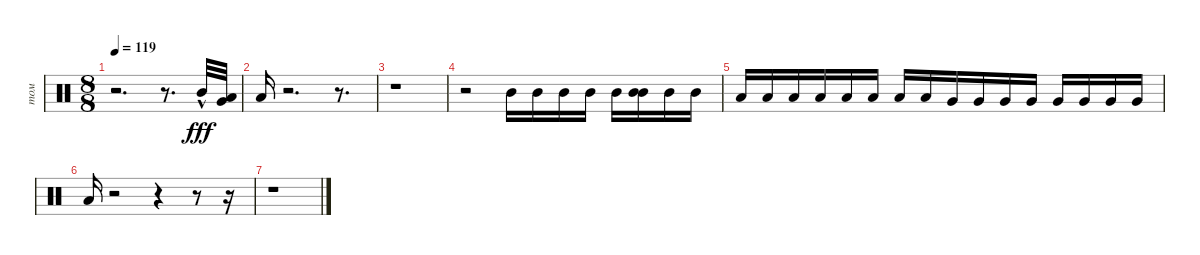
\track ("том" "том") {instrument percussion}
\staff {score}
\articulation defaults
\ts (8 8)
\tempo 119
\clef neutral
\ks c
r.2{d dy fff} r.8{d} "Mid Tom (hit)"{hac}.32 ("Low Tom (hit)" "Very Low Tom (hit)").32 |
"Low Floor Tom (hit)".16 r.2{d} r.8{d} |
r.1 |
r.2 "Mid Tom (hit)".16 "Mid Tom (hit)".16 "Mid Tom (hit)".16 "Mid Tom (hit)".16 "Mid Tom (hit)".16 ("Mid Tom (hit)" "Mid Tom (hit)").16 "Mid Tom (hit)".16 "Mid Tom (hit)".16 |
"Low Tom (hit)".16 "Low Tom (hit)".16 "Low Tom (hit)".16 "Low Tom (hit)".16 "Low Tom (hit)".16 "Low Tom (hit)".16 "Low Tom (hit)".16 "Low Tom (hit)".16 "Very Low Tom (hit)".16 "Very Low Tom (hit)".16 "Very Low Tom (hit)".16 "Very Low Tom (hit)".16 "Very Low Tom (hit)".16 "Very Low Tom (hit)".16 "Very Low Tom (hit)".16 "Very Low Tom (hit)".16 |
"Low Floor Tom (hit)".16 r.2 r.4 r.8 r.16 |
r.1
